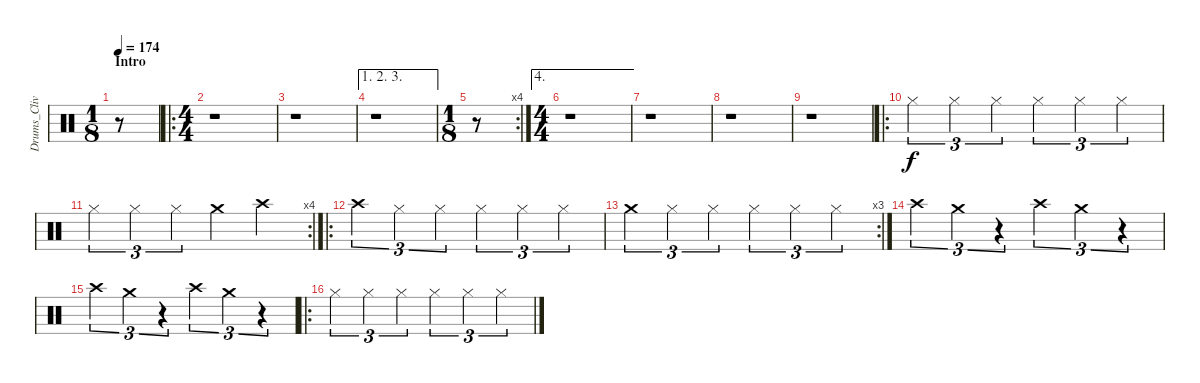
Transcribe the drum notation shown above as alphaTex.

\track ("Drums_CliveBurr" "Drums_Cliv") {instrument percussion}
\staff {score}
\articulation defaults
\ts (1 8)
\section ("" "Intro")
\tempo 174
\clef neutral
\ks c
r.8{dy f} |
\ro
\ts (4 4)
r.1 |
r.1 |
\ae (1 2 3)
r.1 |
\rc 4
\ts (1 8)
r.8 |
\ae 4
\ts (4 4)
r.1 |
r.1 |
r.1 |
r.1 |
\ro "Hi-Hat (closed)".4{tu (3 2)} "Hi-Hat (closed)".4{tu (3 2)} "Hi-Hat (closed)".4{tu (3 2)} "Hi-Hat (closed)".4{tu (3 2)} "Hi-Hat (closed)".4{tu (3 2)} "Hi-Hat (closed)".4{tu (3 2)}
|
\rc 4 "Hi-Hat (closed)".4{tu (3 2)} "Hi-Hat (closed)".4{tu (3 2)} "Hi-Hat (closed)".4{tu (3 2)} "Crash medium (hit)".4 "Crash high (hit)".4
|
\ro "Crash high (hit)".4{tu (3 2)} "Hi-Hat (closed)".4{tu (3 2)} "Hi-Hat (closed)".4{tu (3 2)} "Hi-Hat (closed)".4{tu (3 2)} "Hi-Hat (closed)".4{tu (3 2)} "Hi-Hat (closed)".4{tu (3 2)}
|
\rc 3 "Crash medium (hit)".4{tu (3 2)} "Hi-Hat (closed)".4{tu (3 2)} "Hi-Hat (closed)".4{tu (3 2)} "Hi-Hat (closed)".4{tu (3 2)} "Hi-Hat (closed)".4{tu (3 2)} "Hi-Hat (closed)".4{tu (3 2)}
|
"Crash high (hit)".4{tu (3 2)} "Crash medium (hit)".4{tu (3 2)} r.4{tu (3 2)} "Crash high (hit)".4{tu (3 2)} "Crash medium (hit)".4{tu (3 2)} r.4{tu (3 2)} |
"Crash high (hit)".4{tu (3 2)} "Crash medium (hit)".4{tu (3 2)} r.4{tu (3 2)} "Crash high (hit)".4{tu (3 2)} "Crash medium (hit)".4{tu (3 2)} r.4{tu (3 2)} |
\ro "Hi-Hat (closed)".4{tu (3 2)} "Hi-Hat (closed)".4{tu (3 2)} "Hi-Hat (closed)".4{tu (3 2)} "Hi-Hat (closed)".4{tu (3 2)} "Hi-Hat (closed)".4{tu (3 2)} "Hi-Hat (closed)".4{tu (3 2)}
